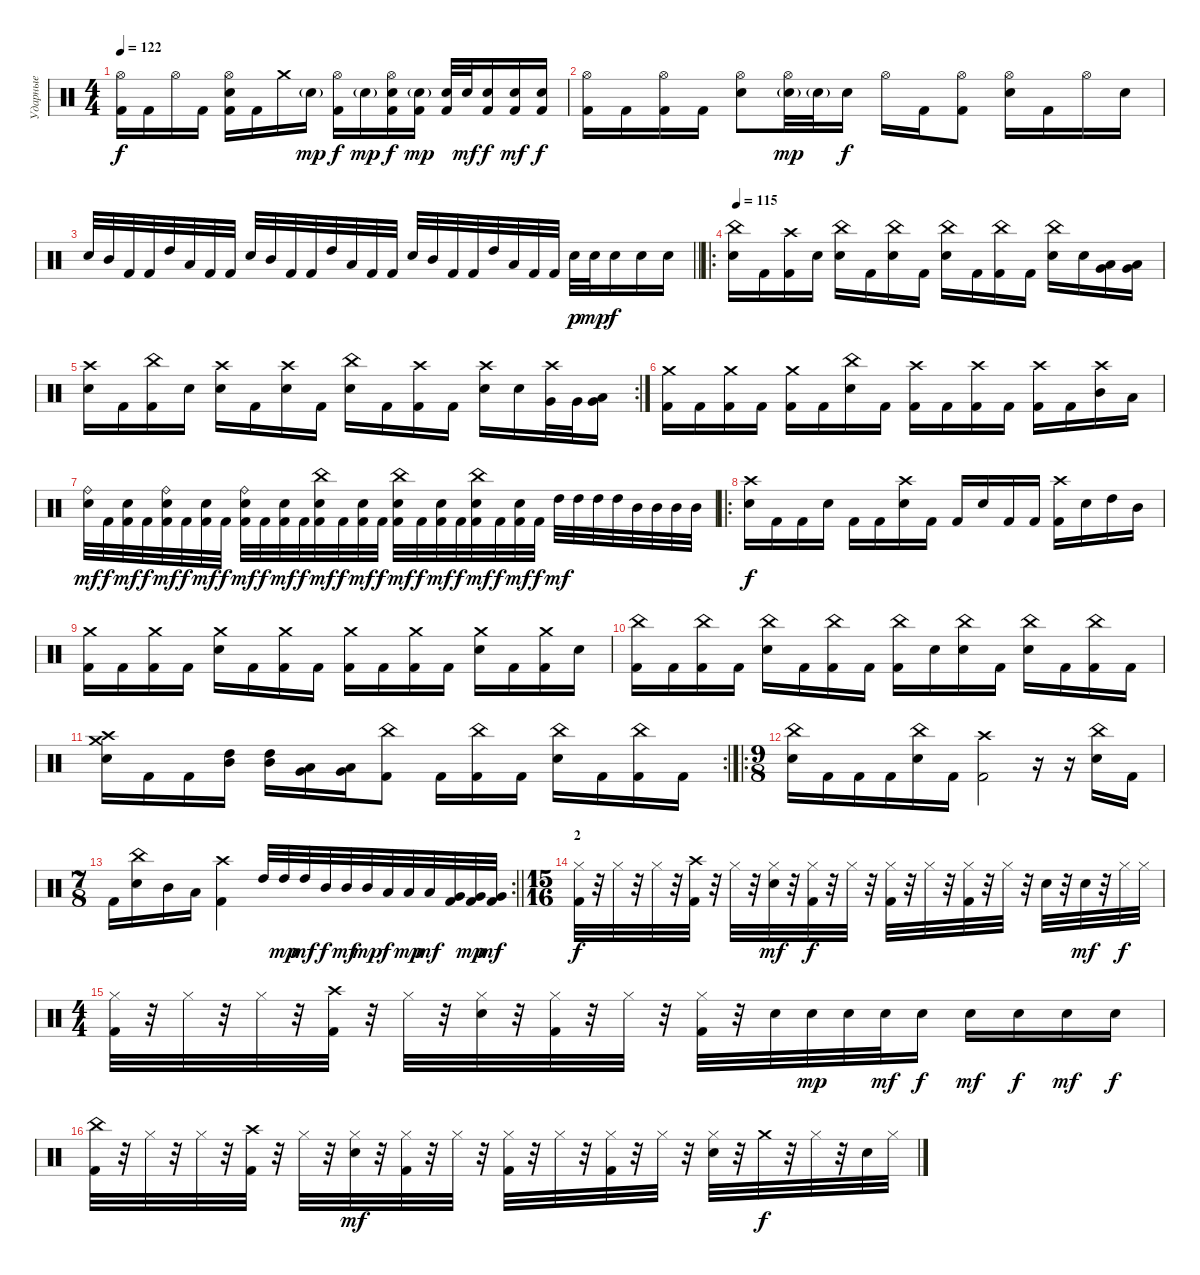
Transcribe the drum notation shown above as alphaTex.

\track ("Ударные" "Ударные") {instrument percussion}
\staff {score}
\articulation defaults
\ts (4 4)
\tempo 122
\clef neutral
\ks c
("Hi-Hat (open)" "Kick (hit) 2").16{dy f} "Kick (hit) 2".16 "Hi-Hat (open)".16 "Kick (hit) 2".16 ("Hi-Hat (open)" "Electric Snare (hit)" "Kick (hit) 2").16 "Kick (hit) 2".16 "Crash medium (hit)".16 "Electric Snare (hit)"{g}.16{dy mp} ("Hi-Hat (open)" "Kick (hit) 2").16{dy f} "Electric Snare (hit)"{g}.16{dy mp} ("Hi-Hat (open)" "Electric Snare (hit)" "Kick (hit) 2").16{dy f} ("Electric Snare (hit)"{g} "Kick (hit) 2").16{dy mp} ("Electric Snare (hit)" "Kick (hit) 2").32 "Electric Snare (hit)".32{dy mf} ("Electric Snare (hit)" "Kick (hit) 2").16{dy f} ("Electric Snare (hit)" "Kick (hit) 2").16{dy mf} ("Electric Snare (hit)" "Kick (hit) 2").16{dy f} |
("Hi-Hat (open)" "Kick (hit) 2").16 "Kick (hit) 2".16 ("Hi-Hat (open)" "Kick (hit) 2").16 "Kick (hit) 2".16 ("Hi-Hat (open)" "Electric Snare (hit)").8 ("Hi-Hat (open)" "Electric Snare (hit)"{g}).32{dy mp} "Electric Snare (hit)"{g}.32 "Electric Snare (hit)".16{dy f} "Hi-Hat (open)".16 "Kick (hit) 2".16 ("Hi-Hat (open)" "Kick (hit) 2").8 ("Hi-Hat (open)" "Electric Snare (hit)").16 "Kick (hit) 2".16 "Hi-Hat (open)".16 "Electric Snare (hit)".16 |
\barLineRight lightlight "Electric Snare (hit)".32 "Mid Tom (hit)".32 "Kick (hit) 2".32 "Kick (hit) 2".32 "High Tom (hit)".32 "Low Tom (hit)".32 "Kick (hit) 2".32 "Kick (hit) 2".32 "Electric Snare (hit)".32 "Mid Tom (hit)".32 "Kick (hit) 2".32 "Kick (hit) 2".32 "High Tom (hit)".32 "Low Tom (hit)".32 "Kick (hit) 2".32 "Kick (hit) 2".32 "Electric Snare (hit)".32 "Mid Tom (hit)".32 "Kick (hit) 2".32 "Kick (hit) 2".32 "High Tom (hit)".32 "Low Tom (hit)".32 "Kick (hit) 2".32 "Kick (hit) 2".32 "Electric Snare (hit)".32{dy p} "Electric Snare (hit)".32{dy mp} "Electric Snare (hit)".16{dy f} "Electric Snare (hit)".16 "Electric Snare (hit)".16
|
\ro
\tempo 115
("China (hit)" "Electric Snare (hit)").16 "Kick (hit) 2".16 ("Crash high (hit)" "Kick (hit) 2").16 "Electric Snare (hit)".16 ("China (hit)" "Electric Snare (hit)").16 "Kick (hit) 2".16 ("China (hit)" "Electric Snare (hit)").16 "Kick (hit) 2".16 ("China (hit)" "Electric Snare (hit)").16 "Kick (hit) 2".16 ("China (hit)" "Kick (hit) 2").16 "Kick (hit) 2".16 ("China (hit)" "Electric Snare (hit)").16 "Electric Snare (hit)".16 ("Low Tom (hit)" "Very Low Tom (hit)").16 ("Low Tom (hit)" "Very Low Tom (hit)").16 |
\rc 2
("Crash high (hit)" "Electric Snare (hit)").16 "Kick (hit) 2".16 ("China (hit)" "Kick (hit) 2").16 "Electric Snare (hit)".16 ("Crash high (hit)" "Electric Snare (hit)").16 "Kick (hit) 2".16 ("Crash high (hit)" "Electric Snare (hit)").16 "Kick (hit) 2".16 ("China (hit)" "Electric Snare (hit)").16 "Kick (hit) 2".16 ("Crash high (hit)" "Kick (hit) 2").16 "Kick (hit) 2".16 ("Crash high (hit)" "Electric Snare (hit)").16 "Electric Snare (hit)".16 ("Crash high (hit)" "Very Low Tom (hit)").32 "Very Low Tom (hit)".32 ("Low Tom (hit)" "Very Low Tom (hit)").16 |
("Crash medium (hit)" "Kick (hit) 2").16 "Kick (hit) 2".16 ("Crash medium (hit)" "Kick (hit) 2").16 "Kick (hit) 2".16 ("Crash medium (hit)" "Kick (hit) 2").16 "Kick (hit) 2".16 ("China (hit)" "Electric Snare (hit)").16 "Kick (hit) 2".16 ("Crash high (hit)" "Kick (hit) 2").16 "Kick (hit) 2".16 ("Crash high (hit)" "Kick (hit) 2").16 "Kick (hit) 2".16 ("Crash high (hit)" "Kick (hit) 2").16 "Kick (hit) 2".16 ("Crash high (hit)" "Mid Tom (hit)").16 "Low Tom (hit)".16 |
("Ride (bell)" "Electric Snare (hit)").32{dy mf} "Kick (hit) 2".32{dy f} ("Electric Snare (hit)" "Kick (hit) 2").32{dy mf} "Kick (hit) 2".32{dy f} ("Ride (bell)" "Electric Snare (hit)" "Kick (hit) 2").32{dy mf} "Kick (hit) 2".32{dy f} ("Electric Snare (hit)" "Kick (hit) 2").32{dy mf} "Kick (hit) 2".32{dy f} ("Ride (bell)" "Electric Snare (hit)" "Kick (hit) 2").32{dy mf} "Kick (hit) 2".32{dy f} ("Electric Snare (hit)" "Kick (hit) 2").32{dy mf} "Kick (hit) 2".32{dy f} ("China (hit)" "Electric Snare (hit)" "Kick (hit) 2").32{dy mf} "Kick (hit) 2".32{dy f} ("Electric Snare (hit)" "Kick (hit) 2").32{dy mf} "Kick (hit) 2".32{dy f} ("China (hit)" "Electric Snare (hit)" "Kick (hit) 2").32{dy mf} "Kick (hit) 2".32{dy f} ("Electric Snare (hit)" "Kick (hit) 2").32{dy mf} "Kick (hit) 2".32{dy f} ("China (hit)" "Electric Snare (hit)" "Kick (hit) 2").32{dy mf} "Kick (hit) 2".32{dy f} ("Electric Snare (hit)" "Kick (hit) 2").32{dy mf} "Kick (hit) 2".32{dy f} "High Tom (hit)".32{dy mf} "High Tom (hit)".32 "High Tom (hit)".32 "High Tom (hit)".32 "Mid Tom (hit)".32 "Mid Tom (hit)".32 "Mid Tom (hit)".32 "Mid Tom (hit)".32 |
\ro
("Crash high (hit)" "Electric Snare (hit)").16{dy f} "Kick (hit) 2".16 "Kick (hit) 2".16 "Electric Snare (hit)".16 "Kick (hit) 2".16 "Kick (hit) 2".16 ("Crash high (hit)" "Electric Snare (hit)").16 "Kick (hit) 2".16 "Kick (hit) 2".16 "Electric Snare (hit)".16 "Kick (hit) 2".16 "Kick (hit) 2".16 ("Crash high (hit)" "Kick (hit) 2").16 "Electric Snare (hit)".16 "High Tom (hit)".16 "Mid Tom (hit)".16 |
("Crash medium (hit)" "Kick (hit) 2").16 "Kick (hit) 2".16 ("Crash medium (hit)" "Kick (hit) 2").16 "Kick (hit) 2".16 ("Crash medium (hit)" "Electric Snare (hit)").16 "Kick (hit) 2".16 ("Crash medium (hit)" "Kick (hit) 2").16 "Kick (hit) 2".16 ("Crash medium (hit)" "Kick (hit) 2").16 "Kick (hit) 2".16 ("Crash medium (hit)" "Kick (hit) 2").16 "Kick (hit) 2".16 ("Crash medium (hit)" "Electric Snare (hit)").16 "Kick (hit) 2".16 ("Crash medium (hit)" "Kick (hit) 2").16 "Electric Snare (hit)".16 |
("China (hit)" "Kick (hit) 2").16 "Kick (hit) 2".16 ("China (hit)" "Kick (hit) 2").16 "Kick (hit) 2".16 ("China (hit)" "Electric Snare (hit)").16 "Kick (hit) 2".16 ("China (hit)" "Kick (hit) 2").16 "Kick (hit) 2".16 ("China (hit)" "Kick (hit) 2").16 "Electric Snare (hit)".16 ("China (hit)" "Electric Snare (hit)").16 "Kick (hit) 2".16 ("China (hit)" "Electric Snare (hit)").16 "Kick (hit) 2".16 ("China (hit)" "Kick (hit) 2").16 "Kick (hit) 2".16 |
\rc 2
("Crash medium (hit)" "Crash high (hit)" "Electric Snare (hit)").16 "Kick (hit) 2".16 "Kick (hit) 2".16 ("Mid Tom (hit)" "High Tom (hit)").16 ("Mid Tom (hit)" "High Tom (hit)").16 ("Very Low Tom (hit)" "Low Tom (hit)").16 ("Very Low Tom (hit)" "Low Tom (hit)").16 ("China (hit)" "Kick (hit) 2").8 "Kick (hit) 2".16 ("China (hit)" "Kick (hit) 2").16 "Kick (hit) 2".16 ("China (hit)" "Electric Snare (hit)").16 "Kick (hit) 2".16 ("China (hit)" "Kick (hit) 2").16 "Kick (hit) 2".16 |
\ro
\ts (9 8)
("China (hit)" "Electric Snare (hit)").16 "Kick (hit) 2".16 "Kick (hit) 2".16 "Kick (hit) 2".16 ("China (hit)" "Electric Snare (hit)").16 "Kick (hit) 2".16 ("Crash high (hit)" "Kick (hit) 2").2 r.16 r.16 ("China (hit)" "Electric Snare (hit)").16 "Kick (hit) 2".16 |
\rc 2
\ts (7 8)
\barLineRight lightlight "Kick (hit) 2".16
("China (hit)" "Electric Snare (hit)").16 "Mid Tom (hit)".16 "Low Tom (hit)".16 ("Crash high (hit)" "Kick (hit) 2").4 "High Tom (hit)".32 "High Tom (hit)".32{dy mp} "High Tom (hit)".32{dy mf} "Mid Tom (hit)".32{dy f} "Mid Tom (hit)".32{dy mf} "Mid Tom (hit)".32{dy mp} "Low Tom (hit)".32{dy f} "Low Tom (hit)".32{dy mp} "Low Tom (hit)".32{dy mf} ("Very Low Tom (hit)" "Kick (hit) 2").32 ("Very Low Tom (hit)" "Kick (hit) 2").32{dy mp} ("Very Low Tom (hit)" "Kick (hit) 2").32{dy mf} |
\ts (15 16)
\section ("" "2")
("Hi-Hat (closed)" "Kick (hit) 2").32{dy f} r.32 "Hi-Hat (closed)".32 r.32 "Hi-Hat (closed)".32 r.32 ("Crash high (hit)" "Kick (hit) 2").32 r.32 "Hi-Hat (closed)".32 r.32 ("Hi-Hat (closed)" "Electric Snare (hit)").32{dy mf} r.32 ("Hi-Hat (closed)" "Kick (hit) 2").32{dy f} r.32 "Hi-Hat (closed)".32 r.32 ("Hi-Hat (closed)" "Kick (hit) 2").32 r.32 "Hi-Hat (closed)".32 r.32 ("Hi-Hat (closed)" "Kick (hit) 2").32 r.32 "Hi-Hat (closed)".32 r.32 "Electric Snare (hit)".32 r.32 "Electric Snare (hit)".32{dy mf} r.32 "Hi-Hat (closed)".32{dy f} "Hi-Hat (closed)".32 |
\ts (4 4)
("Hi-Hat (closed)" "Kick (hit) 2").32 r.32 "Hi-Hat (closed)".32 r.32 "Hi-Hat (closed)".32 r.32 ("Crash high (hit)" "Kick (hit) 2").32 r.32 "Hi-Hat (closed)".32 r.32 ("Hi-Hat (closed)" "Electric Snare (hit)").32 r.32 ("Hi-Hat (closed)" "Kick (hit) 2").32 r.32 "Hi-Hat (closed)".32 r.32 ("Hi-Hat (closed)" "Kick (hit) 2").32 r.32 "Electric Snare (hit)".32 "Electric Snare (hit)".32{dy mp} "Electric Snare (hit)".32 "Electric Snare (hit)".32{dy mf} "Electric Snare (hit)".16{dy f} "Electric Snare (hit)".16{dy mf} "Electric Snare (hit)".16{dy f} "Electric Snare (hit)".16{dy mf} "Electric Snare (hit)".16{dy f} |
("China (hit)" "Kick (hit) 2").32 r.32 "Hi-Hat (closed)".32 r.32 "Hi-Hat (closed)".32 r.32 ("Crash high (hit)" "Kick (hit) 2").32 r.32 "Hi-Hat (closed)".32 r.32 ("Hi-Hat (closed)" "Electric Snare (hit)").32{dy mf} r.32 ("Hi-Hat (closed)" "Kick (hit) 2").32 r.32 "Hi-Hat (closed)".32 r.32 ("Hi-Hat (closed)" "Kick (hit) 2").32 r.32 "Hi-Hat (closed)".32 r.32 ("Hi-Hat (closed)" "Kick (hit) 2").32 r.32 "Hi-Hat (closed)".32 r.32 ("Hi-Hat (closed)" "Electric Snare (hit)").32 r.32 "Crash medium (hit)".32{dy f} r.32 "Hi-Hat (closed)".32 r.32 "Electric Snare (hit)".32 "Hi-Hat (closed)".32
